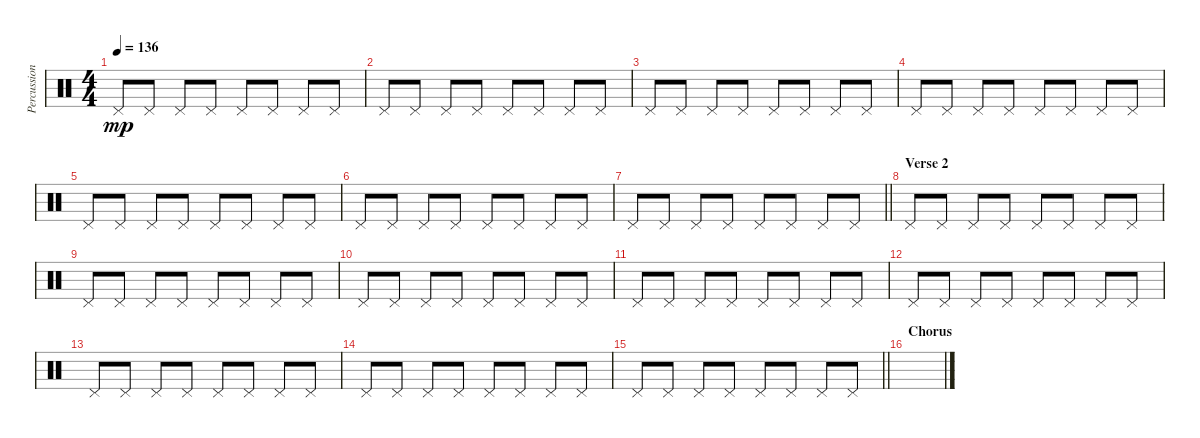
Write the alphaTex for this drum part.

\track ("Percussion" "Percussion") {instrument percussion}
\staff {score}
\articulation defaults
\ts (4 4)
\tempo 136
\clef neutral
\ks c "Pedal Hi-Hat (hit)".8{dy mp} "Pedal Hi-Hat (hit)".8 "Pedal Hi-Hat (hit)".8 "Pedal Hi-Hat (hit)".8 "Pedal Hi-Hat (hit)".8 "Pedal Hi-Hat (hit)".8 "Pedal Hi-Hat (hit)".8 "Pedal Hi-Hat (hit)".8
|
"Pedal Hi-Hat (hit)".8 "Pedal Hi-Hat (hit)".8 "Pedal Hi-Hat (hit)".8 "Pedal Hi-Hat (hit)".8 "Pedal Hi-Hat (hit)".8 "Pedal Hi-Hat (hit)".8 "Pedal Hi-Hat (hit)".8 "Pedal Hi-Hat (hit)".8 |
"Pedal Hi-Hat (hit)".8 "Pedal Hi-Hat (hit)".8 "Pedal Hi-Hat (hit)".8 "Pedal Hi-Hat (hit)".8 "Pedal Hi-Hat (hit)".8 "Pedal Hi-Hat (hit)".8 "Pedal Hi-Hat (hit)".8 "Pedal Hi-Hat (hit)".8 |
"Pedal Hi-Hat (hit)".8 "Pedal Hi-Hat (hit)".8 "Pedal Hi-Hat (hit)".8 "Pedal Hi-Hat (hit)".8 "Pedal Hi-Hat (hit)".8 "Pedal Hi-Hat (hit)".8 "Pedal Hi-Hat (hit)".8 "Pedal Hi-Hat (hit)".8 |
"Pedal Hi-Hat (hit)".8 "Pedal Hi-Hat (hit)".8 "Pedal Hi-Hat (hit)".8 "Pedal Hi-Hat (hit)".8 "Pedal Hi-Hat (hit)".8 "Pedal Hi-Hat (hit)".8 "Pedal Hi-Hat (hit)".8 "Pedal Hi-Hat (hit)".8 |
"Pedal Hi-Hat (hit)".8 "Pedal Hi-Hat (hit)".8 "Pedal Hi-Hat (hit)".8 "Pedal Hi-Hat (hit)".8 "Pedal Hi-Hat (hit)".8 "Pedal Hi-Hat (hit)".8 "Pedal Hi-Hat (hit)".8 "Pedal Hi-Hat (hit)".8 |
\barLineRight lightlight "Pedal Hi-Hat (hit)".8 "Pedal Hi-Hat (hit)".8 "Pedal Hi-Hat (hit)".8 "Pedal Hi-Hat (hit)".8 "Pedal Hi-Hat (hit)".8 "Pedal Hi-Hat (hit)".8 "Pedal Hi-Hat (hit)".8 "Pedal Hi-Hat (hit)".8
|
\section ("" "Verse 2")
"Pedal Hi-Hat (hit)".8 "Pedal Hi-Hat (hit)".8 "Pedal Hi-Hat (hit)".8 "Pedal Hi-Hat (hit)".8 "Pedal Hi-Hat (hit)".8 "Pedal Hi-Hat (hit)".8 "Pedal Hi-Hat (hit)".8 "Pedal Hi-Hat (hit)".8 |
"Pedal Hi-Hat (hit)".8 "Pedal Hi-Hat (hit)".8 "Pedal Hi-Hat (hit)".8 "Pedal Hi-Hat (hit)".8 "Pedal Hi-Hat (hit)".8 "Pedal Hi-Hat (hit)".8 "Pedal Hi-Hat (hit)".8 "Pedal Hi-Hat (hit)".8 |
"Pedal Hi-Hat (hit)".8 "Pedal Hi-Hat (hit)".8 "Pedal Hi-Hat (hit)".8 "Pedal Hi-Hat (hit)".8 "Pedal Hi-Hat (hit)".8 "Pedal Hi-Hat (hit)".8 "Pedal Hi-Hat (hit)".8 "Pedal Hi-Hat (hit)".8 |
"Pedal Hi-Hat (hit)".8 "Pedal Hi-Hat (hit)".8 "Pedal Hi-Hat (hit)".8 "Pedal Hi-Hat (hit)".8 "Pedal Hi-Hat (hit)".8 "Pedal Hi-Hat (hit)".8 "Pedal Hi-Hat (hit)".8 "Pedal Hi-Hat (hit)".8 |
"Pedal Hi-Hat (hit)".8 "Pedal Hi-Hat (hit)".8 "Pedal Hi-Hat (hit)".8 "Pedal Hi-Hat (hit)".8 "Pedal Hi-Hat (hit)".8 "Pedal Hi-Hat (hit)".8 "Pedal Hi-Hat (hit)".8 "Pedal Hi-Hat (hit)".8 |
"Pedal Hi-Hat (hit)".8 "Pedal Hi-Hat (hit)".8 "Pedal Hi-Hat (hit)".8 "Pedal Hi-Hat (hit)".8 "Pedal Hi-Hat (hit)".8 "Pedal Hi-Hat (hit)".8 "Pedal Hi-Hat (hit)".8 "Pedal Hi-Hat (hit)".8 |
"Pedal Hi-Hat (hit)".8 "Pedal Hi-Hat (hit)".8 "Pedal Hi-Hat (hit)".8 "Pedal Hi-Hat (hit)".8 "Pedal Hi-Hat (hit)".8 "Pedal Hi-Hat (hit)".8 "Pedal Hi-Hat (hit)".8 "Pedal Hi-Hat (hit)".8 |
\barLineRight lightlight "Pedal Hi-Hat (hit)".8 "Pedal Hi-Hat (hit)".8 "Pedal Hi-Hat (hit)".8 "Pedal Hi-Hat (hit)".8 "Pedal Hi-Hat (hit)".8 "Pedal Hi-Hat (hit)".8 "Pedal Hi-Hat (hit)".8 "Pedal Hi-Hat (hit)".8
|
\section ("" "Chorus")
